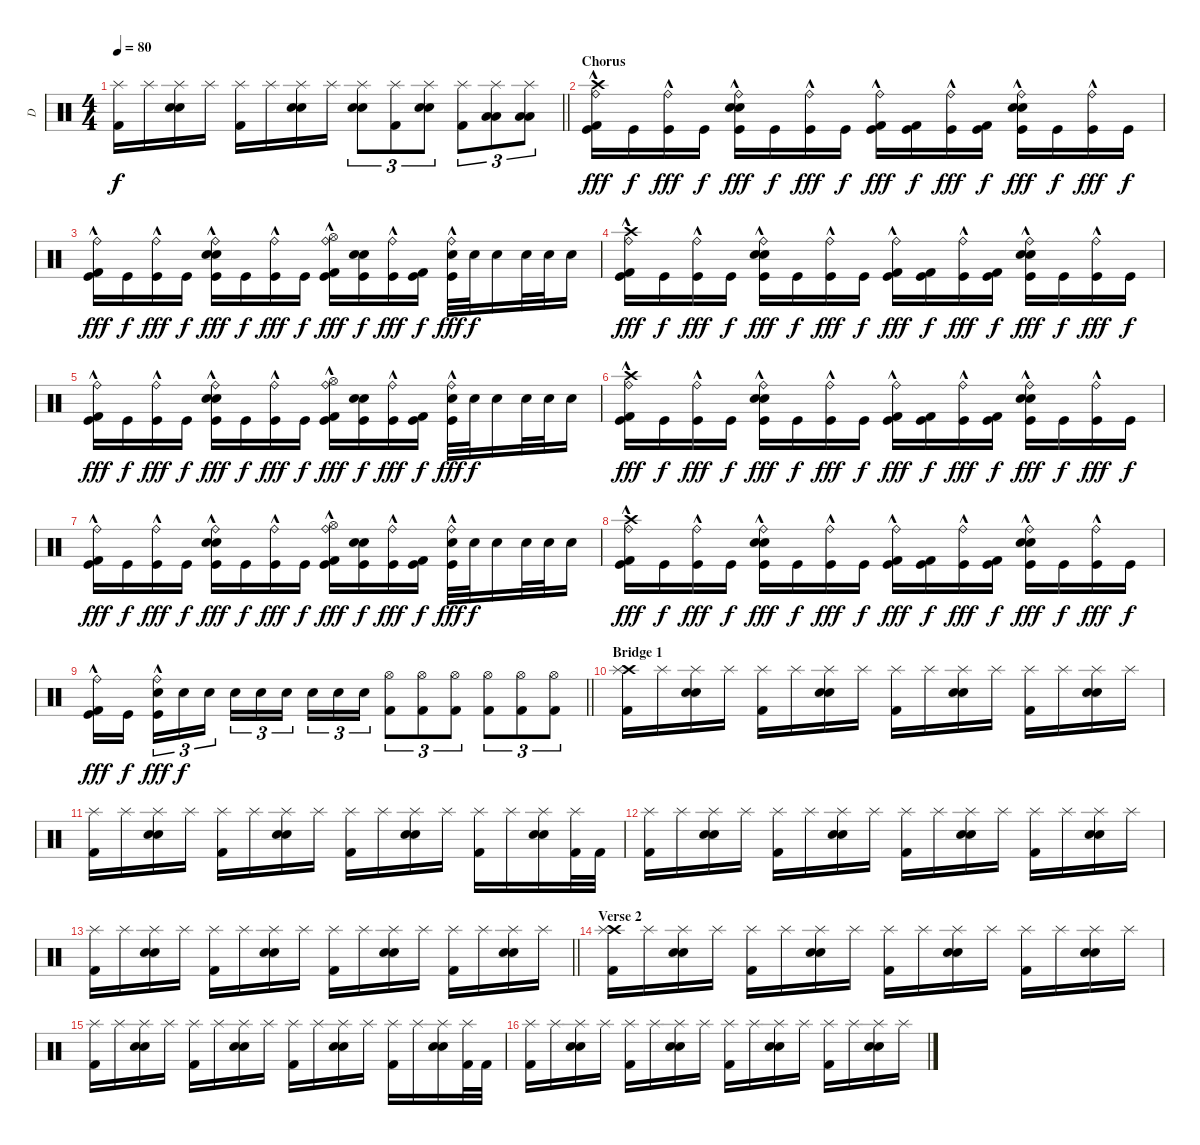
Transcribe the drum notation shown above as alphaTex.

\track ("D" "D") {instrument percussion}
\staff {score}
\articulation defaults
\ts (4 4)
\tempo 80
\clef neutral
\barLineRight lightlight
\ks c
("Kick (hit) 2" "Splash (hit)").16{dy f} "Splash (hit)".16 ("Electric Snare (hit)" "Electric Snare (hit)" "Splash (hit)").16 "Splash (hit)".16 ("Kick (hit) 2" "Splash (hit)").16 "Splash (hit)".16 ("Electric Snare (hit)" "Electric Snare (hit)" "Splash (hit)").16 "Splash (hit)".16 ("Electric Snare (hit)" "Electric Snare (hit)" "Splash (hit)").8{tu (3 2)} ("Kick (hit) 2" "Splash (hit)").8{tu (3 2)} ("Electric Snare (hit)" "Electric Snare (hit)" "Splash (hit)").8{tu (3 2)} ("Kick (hit) 2" "Splash (hit)").8{tu (3 2)} ("Low Tom (hit)" "Low Floor Tom (hit)" "Splash (hit)").8{tu (3 2)} ("Low Tom (hit)" "Low Floor Tom (hit)" "Splash (hit)").8{tu (3 2)} |
\section ("" "Chorus")
("Crash high (hit)" "Kick (hit) 2" "Kick (hit)" "Ride (bell)"{hac}).16{dy fff} "Kick (hit)".16{dy f} ("Kick (hit)" "Ride (bell)"{hac}).16{dy fff} "Kick (hit)".16{dy f} ("Electric Snare (hit)" "Electric Snare (hit)" "Kick (hit)" "Ride (bell)"{hac}).16{dy fff} "Kick (hit)".16{dy f} ("Kick (hit)" "Ride (bell)"{hac}).16{dy fff} "Kick (hit)".16{dy f} ("Kick (hit) 2" "Kick (hit)" "Ride (bell)"{hac}).16{dy fff} ("Kick (hit) 2" "Kick (hit)").16{dy f} ("Kick (hit)" "Ride (bell)"{hac}).16{dy fff} ("Kick (hit) 2" "Kick (hit)").16{dy f} ("Electric Snare (hit)" "Electric Snare (hit)" "Kick (hit)" "Ride (bell)"{hac}).16{dy fff} "Kick (hit)".16{dy f} ("Kick (hit)" "Ride (bell)"{hac}).16{dy fff} "Kick (hit)".16{dy f} |
("Kick (hit) 2" "Kick (hit)" "Ride (bell)"{hac}).16{dy fff} "Kick (hit)".16{dy f} ("Kick (hit)" "Ride (bell)"{hac}).16{dy fff} "Kick (hit)".16{dy f} ("Electric Snare (hit)" "Electric Snare (hit)" "Kick (hit)" "Ride (bell)"{hac}).16{dy fff} "Kick (hit)".16{dy f} ("Kick (hit)" "Ride (bell)"{hac}).16{dy fff} "Kick (hit)".16{dy f} ("Hi-Hat (open)" "Kick (hit) 2" "Kick (hit)" "Ride (bell)"{hac}).16{dy fff} ("Electric Snare (hit)" "Electric Snare (hit)" "Kick (hit)").16{dy f} ("Kick (hit)" "Ride (bell)"{hac}).16{dy fff} ("Kick (hit) 2" "Kick (hit)").16{dy f} ("Electric Snare (hit)" "Kick (hit)" "Ride (bell)"{hac}).32{dy fff} "Electric Snare (hit)".32{dy f} "Electric Snare (hit)".16 "Electric Snare (hit)".32 "Electric Snare (hit)".32 "Electric Snare (hit)".16 |
("Crash high (hit)" "Kick (hit) 2" "Kick (hit)" "Ride (bell)"{hac}).16{dy fff} "Kick (hit)".16{dy f} ("Kick (hit)" "Ride (bell)"{hac}).16{dy fff} "Kick (hit)".16{dy f} ("Electric Snare (hit)" "Electric Snare (hit)" "Kick (hit)" "Ride (bell)"{hac}).16{dy fff} "Kick (hit)".16{dy f} ("Kick (hit)" "Ride (bell)"{hac}).16{dy fff} "Kick (hit)".16{dy f} ("Kick (hit) 2" "Kick (hit)" "Ride (bell)"{hac}).16{dy fff} ("Kick (hit) 2" "Kick (hit)").16{dy f} ("Kick (hit)" "Ride (bell)"{hac}).16{dy fff} ("Kick (hit) 2" "Kick (hit)").16{dy f} ("Electric Snare (hit)" "Electric Snare (hit)" "Kick (hit)" "Ride (bell)"{hac}).16{dy fff} "Kick (hit)".16{dy f} ("Kick (hit)" "Ride (bell)"{hac}).16{dy fff} "Kick (hit)".16{dy f} |
("Kick (hit) 2" "Kick (hit)" "Ride (bell)"{hac}).16{dy fff} "Kick (hit)".16{dy f} ("Kick (hit)" "Ride (bell)"{hac}).16{dy fff} "Kick (hit)".16{dy f} ("Electric Snare (hit)" "Electric Snare (hit)" "Kick (hit)" "Ride (bell)"{hac}).16{dy fff} "Kick (hit)".16{dy f} ("Kick (hit)" "Ride (bell)"{hac}).16{dy fff} "Kick (hit)".16{dy f} ("Hi-Hat (open)" "Kick (hit) 2" "Kick (hit)" "Ride (bell)"{hac}).16{dy fff} ("Electric Snare (hit)" "Electric Snare (hit)" "Kick (hit)").16{dy f} ("Kick (hit)" "Ride (bell)"{hac}).16{dy fff} ("Kick (hit) 2" "Kick (hit)").16{dy f} ("Electric Snare (hit)" "Kick (hit)" "Ride (bell)"{hac}).32{dy fff} "Electric Snare (hit)".32{dy f} "Electric Snare (hit)".16 "Electric Snare (hit)".32 "Electric Snare (hit)".32 "Electric Snare (hit)".16 |
("Crash high (hit)" "Kick (hit) 2" "Kick (hit)" "Ride (bell)"{hac}).16{dy fff} "Kick (hit)".16{dy f} ("Kick (hit)" "Ride (bell)"{hac}).16{dy fff} "Kick (hit)".16{dy f} ("Electric Snare (hit)" "Electric Snare (hit)" "Kick (hit)" "Ride (bell)"{hac}).16{dy fff} "Kick (hit)".16{dy f} ("Kick (hit)" "Ride (bell)"{hac}).16{dy fff} "Kick (hit)".16{dy f} ("Kick (hit) 2" "Kick (hit)" "Ride (bell)"{hac}).16{dy fff} ("Kick (hit) 2" "Kick (hit)").16{dy f} ("Kick (hit)" "Ride (bell)"{hac}).16{dy fff} ("Kick (hit) 2" "Kick (hit)").16{dy f} ("Electric Snare (hit)" "Electric Snare (hit)" "Kick (hit)" "Ride (bell)"{hac}).16{dy fff} "Kick (hit)".16{dy f} ("Kick (hit)" "Ride (bell)"{hac}).16{dy fff} "Kick (hit)".16{dy f} |
("Kick (hit) 2" "Kick (hit)" "Ride (bell)"{hac}).16{dy fff} "Kick (hit)".16{dy f} ("Kick (hit)" "Ride (bell)"{hac}).16{dy fff} "Kick (hit)".16{dy f} ("Electric Snare (hit)" "Electric Snare (hit)" "Kick (hit)" "Ride (bell)"{hac}).16{dy fff} "Kick (hit)".16{dy f} ("Kick (hit)" "Ride (bell)"{hac}).16{dy fff} "Kick (hit)".16{dy f} ("Hi-Hat (open)" "Kick (hit) 2" "Kick (hit)" "Ride (bell)"{hac}).16{dy fff} ("Electric Snare (hit)" "Electric Snare (hit)" "Kick (hit)").16{dy f} ("Kick (hit)" "Ride (bell)"{hac}).16{dy fff} ("Kick (hit) 2" "Kick (hit)").16{dy f} ("Electric Snare (hit)" "Kick (hit)" "Ride (bell)"{hac}).32{dy fff} "Electric Snare (hit)".32{dy f} "Electric Snare (hit)".16 "Electric Snare (hit)".32 "Electric Snare (hit)".32 "Electric Snare (hit)".16 |
("Crash high (hit)" "Kick (hit) 2" "Kick (hit)" "Ride (bell)"{hac}).16{dy fff} "Kick (hit)".16{dy f} ("Kick (hit)" "Ride (bell)"{hac}).16{dy fff} "Kick (hit)".16{dy f} ("Electric Snare (hit)" "Electric Snare (hit)" "Kick (hit)" "Ride (bell)"{hac}).16{dy fff} "Kick (hit)".16{dy f} ("Kick (hit)" "Ride (bell)"{hac}).16{dy fff} "Kick (hit)".16{dy f} ("Kick (hit) 2" "Kick (hit)" "Ride (bell)"{hac}).16{dy fff} ("Kick (hit) 2" "Kick (hit)").16{dy f} ("Kick (hit)" "Ride (bell)"{hac}).16{dy fff} ("Kick (hit) 2" "Kick (hit)").16{dy f} ("Electric Snare (hit)" "Electric Snare (hit)" "Kick (hit)" "Ride (bell)"{hac}).16{dy fff} "Kick (hit)".16{dy f} ("Kick (hit)" "Ride (bell)"{hac}).16{dy fff} "Kick (hit)".16{dy f} |
\barLineRight lightlight
("Kick (hit) 2" "Kick (hit)" "Ride (bell)"{hac}).16{dy fff} "Kick (hit)".16{dy f beam splitsecondary} ("Electric Snare (hit)" "Kick (hit)" "Ride (bell)"{hac}).16{tu (3 2) dy fff} "Electric Snare (hit)".16{tu (3 2) dy f} "Electric Snare (hit)".16{tu (3 2)} "Electric Snare (hit)".16{tu (3 2)} "Electric Snare (hit)".16{tu (3 2)} "Electric Snare (hit)".16{tu (3 2) beam splitsecondary} "Electric Snare (hit)".16{tu (3 2)} "Electric Snare (hit)".16{tu (3 2)} "Electric Snare (hit)".16{tu (3 2)} ("Kick (hit) 2" "Hi-Hat (open)").8{tu (3 2)} ("Kick (hit) 2" "Hi-Hat (open)").8{tu (3 2)} ("Kick (hit) 2" "Hi-Hat (open)").8{tu (3 2)} ("Kick (hit) 2" "Hi-Hat (open)").8{tu (3 2)} ("Kick (hit) 2" "Hi-Hat (open)").8{tu (3 2)} ("Kick (hit) 2" "Hi-Hat (open)").8{tu (3 2)} |
\section ("" "Bridge 1")
("Crash high (hit)" "Kick (hit) 2" "Splash (hit)").16 "Splash (hit)".16 ("Electric Snare (hit)" "Electric Snare (hit)" "Splash (hit)").16 "Splash (hit)".16 ("Kick (hit) 2" "Splash (hit)").16 "Splash (hit)".16 ("Electric Snare (hit)" "Electric Snare (hit)" "Splash (hit)").16 "Splash (hit)".16 ("Kick (hit) 2" "Splash (hit)").16 "Splash (hit)".16 ("Electric Snare (hit)" "Electric Snare (hit)" "Splash (hit)").16 "Splash (hit)".16 ("Kick (hit) 2" "Splash (hit)").16 "Splash (hit)".16 ("Electric Snare (hit)" "Electric Snare (hit)" "Splash (hit)").16 "Splash (hit)".16 |
("Kick (hit) 2" "Splash (hit)").16 "Splash (hit)".16 ("Electric Snare (hit)" "Electric Snare (hit)" "Splash (hit)").16 "Splash (hit)".16 ("Kick (hit) 2" "Splash (hit)").16 "Splash (hit)".16 ("Electric Snare (hit)" "Electric Snare (hit)" "Splash (hit)").16 "Splash (hit)".16 ("Kick (hit) 2" "Splash (hit)").16 "Splash (hit)".16 ("Electric Snare (hit)" "Electric Snare (hit)" "Splash (hit)").16 "Splash (hit)".16 ("Kick (hit) 2" "Splash (hit)").16 "Splash (hit)".16 ("Electric Snare (hit)" "Electric Snare (hit)" "Splash (hit)").16 ("Kick (hit) 2" "Splash (hit)").32 "Kick (hit) 2".32 |
("Kick (hit) 2" "Splash (hit)").16 "Splash (hit)".16 ("Electric Snare (hit)" "Electric Snare (hit)" "Splash (hit)").16 "Splash (hit)".16 ("Kick (hit) 2" "Splash (hit)").16 "Splash (hit)".16 ("Electric Snare (hit)" "Electric Snare (hit)" "Splash (hit)").16 "Splash (hit)".16 ("Kick (hit) 2" "Splash (hit)").16 "Splash (hit)".16 ("Electric Snare (hit)" "Electric Snare (hit)" "Splash (hit)").16 "Splash (hit)".16 ("Kick (hit) 2" "Splash (hit)").16 "Splash (hit)".16 ("Electric Snare (hit)" "Electric Snare (hit)" "Splash (hit)").16 "Splash (hit)".16 |
\barLineRight lightlight
("Kick (hit) 2" "Splash (hit)").16 "Splash (hit)".16 ("Electric Snare (hit)" "Electric Snare (hit)" "Splash (hit)").16 "Splash (hit)".16 ("Kick (hit) 2" "Splash (hit)").16 "Splash (hit)".16 ("Electric Snare (hit)" "Electric Snare (hit)" "Splash (hit)").16 "Splash (hit)".16 ("Kick (hit) 2" "Splash (hit)").16 "Splash (hit)".16 ("Electric Snare (hit)" "Electric Snare (hit)" "Splash (hit)").16 "Splash (hit)".16 ("Kick (hit) 2" "Splash (hit)").16 "Splash (hit)".16 ("Electric Snare (hit)" "Electric Snare (hit)" "Splash (hit)").16 "Splash (hit)".16 |
\section ("" "Verse 2")
("Crash high (hit)" "Kick (hit) 2" "Splash (hit)").16 "Splash (hit)".16 ("Electric Snare (hit)" "Electric Snare (hit)" "Splash (hit)").16 "Splash (hit)".16 ("Kick (hit) 2" "Splash (hit)").16 "Splash (hit)".16 ("Electric Snare (hit)" "Electric Snare (hit)" "Splash (hit)").16 "Splash (hit)".16 ("Kick (hit) 2" "Splash (hit)").16 "Splash (hit)".16 ("Electric Snare (hit)" "Electric Snare (hit)" "Splash (hit)").16 "Splash (hit)".16 ("Kick (hit) 2" "Splash (hit)").16 "Splash (hit)".16 ("Electric Snare (hit)" "Electric Snare (hit)" "Splash (hit)").16 "Splash (hit)".16 |
("Kick (hit) 2" "Splash (hit)").16 "Splash (hit)".16 ("Electric Snare (hit)" "Electric Snare (hit)" "Splash (hit)").16 "Splash (hit)".16 ("Kick (hit) 2" "Splash (hit)").16 "Splash (hit)".16 ("Electric Snare (hit)" "Electric Snare (hit)" "Splash (hit)").16 "Splash (hit)".16 ("Kick (hit) 2" "Splash (hit)").16 "Splash (hit)".16 ("Electric Snare (hit)" "Electric Snare (hit)" "Splash (hit)").16 "Splash (hit)".16 ("Kick (hit) 2" "Splash (hit)").16 "Splash (hit)".16 ("Electric Snare (hit)" "Electric Snare (hit)" "Splash (hit)").16 ("Kick (hit) 2" "Splash (hit)").32 "Kick (hit) 2".32 |
("Kick (hit) 2" "Splash (hit)").16 "Splash (hit)".16 ("Electric Snare (hit)" "Electric Snare (hit)" "Splash (hit)").16 "Splash (hit)".16 ("Kick (hit) 2" "Splash (hit)").16 "Splash (hit)".16 ("Electric Snare (hit)" "Electric Snare (hit)" "Splash (hit)").16 "Splash (hit)".16 ("Kick (hit) 2" "Splash (hit)").16 "Splash (hit)".16 ("Electric Snare (hit)" "Electric Snare (hit)" "Splash (hit)").16 "Splash (hit)".16 ("Kick (hit) 2" "Splash (hit)").16 "Splash (hit)".16 ("Electric Snare (hit)" "Electric Snare (hit)" "Splash (hit)").16 "Splash (hit)".16
